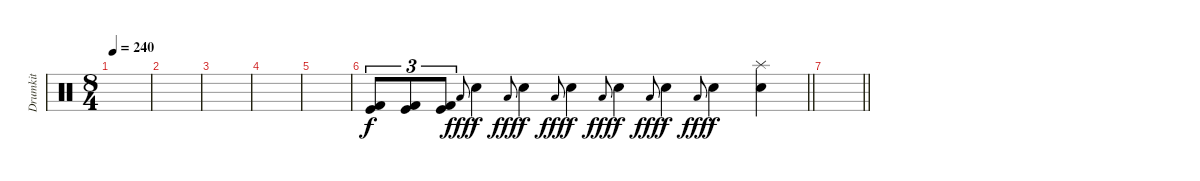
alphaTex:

\track ("Drumkit" "Drumkit") {instrument percussion}
\staff {score}
\articulation defaults
\ts (8 4)
\tempo 240
\clef neutral
\ks c
|
|
|
|
|
\barLineRight lightlight
("Kick (hit)" "Kick (hit) 2").8{tu (3 2)} ("Kick (hit)" "Kick (hit) 2").8{tu (3 2)} ("Kick (hit)" "Kick (hit) 2").8{tu (3 2)} "Low Floor Tom (hit)".8{gr onbeat dy fff} "Electric Snare (hit)".4{dy f} "Low Floor Tom (hit)".8{gr onbeat dy fff} "Electric Snare (hit)".4{dy f} "Low Floor Tom (hit)".8{gr onbeat dy fff} "Electric Snare (hit)".4{dy f} "Low Floor Tom (hit)".8{gr onbeat dy fff} "Electric Snare (hit)".4{dy f} "Low Floor Tom (hit)".8{gr onbeat dy fff} "Electric Snare (hit)".4{dy f} "Low Floor Tom (hit)".8{gr onbeat dy fff} "Electric Snare (hit)".4{dy f} ("Splash (hit)" "Electric Snare (hit)").4 |
\barLineRight lightlight
